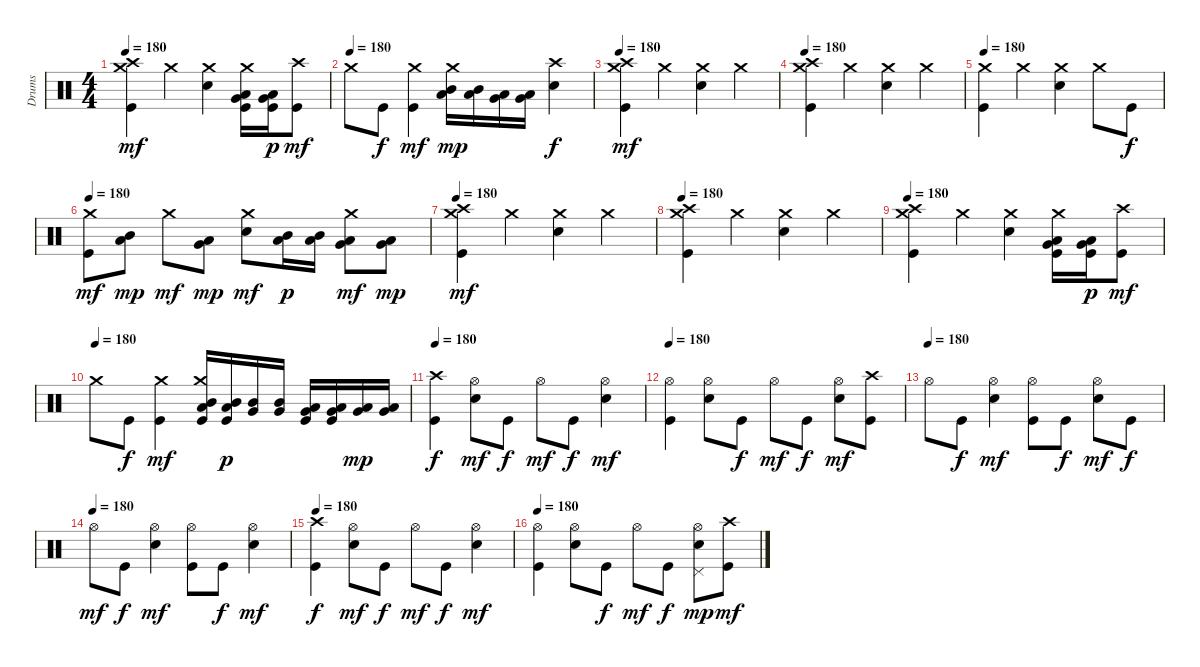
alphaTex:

\track ("Drums" "Drums") {instrument percussion}
\staff {score}
\articulation defaults
\ts (4 4)
\tempo 180
\clef neutral
\ks c
("Kick (hit)" "Crash medium (hit)" "Crash high (hit)").4{dy mf} "Crash medium (hit)".4 ("Electric Snare (hit)" "Crash medium (hit)").4 ("Kick (hit)" "Very Low Tom (hit)" "Low Tom (hit)" "Crash medium (hit)").16 ("Kick (hit)" "Very Low Tom (hit)" "Low Tom (hit)").16{dy p} ("Kick (hit)" "Crash high (hit)").8{dy mf} |
\tempo (180)
"Crash medium (hit)".8 "Kick (hit)".8{dy f} ("Kick (hit)" "Crash medium (hit)").4{dy mf} ("Low Tom (hit)" "Mid Tom (hit)" "Crash medium (hit)").16{dy mp} ("Low Tom (hit)" "Mid Tom (hit)").16 ("Very Low Tom (hit)" "Low Tom (hit)").16 ("Very Low Tom (hit)" "Low Tom (hit)").16 ("Electric Snare (hit)" "Crash high (hit)").4{dy f} |
\tempo 180
("Kick (hit)" "Crash medium (hit)" "Crash high (hit)").4{dy mf} "Crash medium (hit)".4 ("Electric Snare (hit)" "Crash medium (hit)").4 "Crash medium (hit)".4 |
\tempo 180
("Kick (hit)" "Crash medium (hit)" "Crash high (hit)").4 "Crash medium (hit)".4 ("Electric Snare (hit)" "Crash medium (hit)").4 "Crash medium (hit)".4 |
\tempo 180
("Kick (hit)" "Crash medium (hit)").4 "Crash medium (hit)".4 ("Electric Snare (hit)" "Crash medium (hit)").4 "Crash medium (hit)".8 "Kick (hit)".8{dy f} |
\tempo 180
("Kick (hit)" "Crash medium (hit)").8{dy mf} ("Low Tom (hit)" "Mid Tom (hit)").8{dy mp} "Crash medium (hit)".8{dy mf} ("Low Floor Tom (hit)" "Very Low Tom (hit)").8{dy mp} ("Electric Snare (hit)" "Crash medium (hit)").8{dy mf} ("Low Tom (hit)" "Mid Tom (hit)").16{dy p} ("Low Tom (hit)" "Mid Tom (hit)").16 ("Very Low Tom (hit)" "Low Tom (hit)" "Crash medium (hit)").8{dy mf} ("Low Floor Tom (hit)" "Very Low Tom (hit)").8{dy mp} |
\tempo 180
("Kick (hit)" "Crash medium (hit)" "Crash high (hit)").4{dy mf} "Crash medium (hit)".4 ("Electric Snare (hit)" "Crash medium (hit)").4 "Crash medium (hit)".4 |
\tempo 180
("Kick (hit)" "Crash medium (hit)" "Crash high (hit)").4 "Crash medium (hit)".4 ("Electric Snare (hit)" "Crash medium (hit)").4 "Crash medium (hit)".4 |
\tempo 180
("Kick (hit)" "Crash medium (hit)" "Crash high (hit)").4 "Crash medium (hit)".4 ("Electric Snare (hit)" "Crash medium (hit)").4 ("Kick (hit)" "Very Low Tom (hit)" "Low Tom (hit)" "Crash medium (hit)").16 ("Kick (hit)" "Very Low Tom (hit)" "Low Tom (hit)").16{dy p} ("Kick (hit)" "Crash high (hit)").8{dy mf} |
\tempo (180)
"Crash medium (hit)".8 "Kick (hit)".8{dy f} ("Kick (hit)" "Crash medium (hit)").4{dy mf} ("Kick (hit)" "Low Tom (hit)" "Mid Tom (hit)" "Crash medium (hit)").16 ("Kick (hit)" "Low Tom (hit)" "Mid Tom (hit)").16{dy p} ("Very Low Tom (hit)" "Mid Tom (hit)").16 ("Very Low Tom (hit)" "Mid Tom (hit)").16 ("Kick (hit)" "Very Low Tom (hit)" "Low Tom (hit)").16 ("Kick (hit)" "Very Low Tom (hit)" "Low Tom (hit)").16 ("Low Floor Tom (hit)" "Very Low Tom (hit)").16{dy mp} ("Low Floor Tom (hit)" "Very Low Tom (hit)").16 |
\tempo 180
("Kick (hit)" "Crash high (hit)").4{dy f} ("Electric Snare (hit)" "Hi-Hat (open)").8{dy mf} "Kick (hit)".8{dy f} "Hi-Hat (open)".8{dy mf} "Kick (hit)".8{dy f} ("Electric Snare (hit)" "Hi-Hat (open)").4{dy mf} |
\tempo 180
("Kick (hit)" "Hi-Hat (open)").4 ("Electric Snare (hit)" "Hi-Hat (open)").8 "Kick (hit)".8{dy f} "Hi-Hat (open)".8{dy mf} "Kick (hit)".8{dy f} ("Electric Snare (hit)" "Hi-Hat (open)").8{dy mf} ("Kick (hit)" "Crash high (hit)").8 |
\tempo (180)
"Hi-Hat (open)".8 "Kick (hit)".8{dy f} ("Electric Snare (hit)" "Hi-Hat (open)").4{dy mf} ("Kick (hit)" "Hi-Hat (open)").8 "Kick (hit)".8{dy f} ("Electric Snare (hit)" "Hi-Hat (open)").8{dy mf} "Kick (hit)".8{dy f} |
\tempo (180)
"Hi-Hat (open)".8{dy mf} "Kick (hit)".8{dy f} ("Electric Snare (hit)" "Hi-Hat (open)").4{dy mf} ("Kick (hit)" "Hi-Hat (open)").8 "Kick (hit)".8{dy f} ("Electric Snare (hit)" "Hi-Hat (open)").4{dy mf} |
\tempo 180
("Kick (hit)" "Crash high (hit)").4{dy f} ("Electric Snare (hit)" "Hi-Hat (open)").8{dy mf} "Kick (hit)".8{dy f} "Hi-Hat (open)".8{dy mf} "Kick (hit)".8{dy f} ("Electric Snare (hit)" "Hi-Hat (open)").4{dy mf} |
\tempo 180
("Kick (hit)" "Hi-Hat (open)").4 ("Electric Snare (hit)" "Hi-Hat (open)").8 "Kick (hit)".8{dy f} "Hi-Hat (open)".8{dy mf} "Kick (hit)".8{dy f} ("Electric Snare (hit)" "Hi-Hat (open)" "Pedal Hi-Hat (hit)").8{dy mp} ("Kick (hit)" "Crash high (hit)").8{dy mf}
